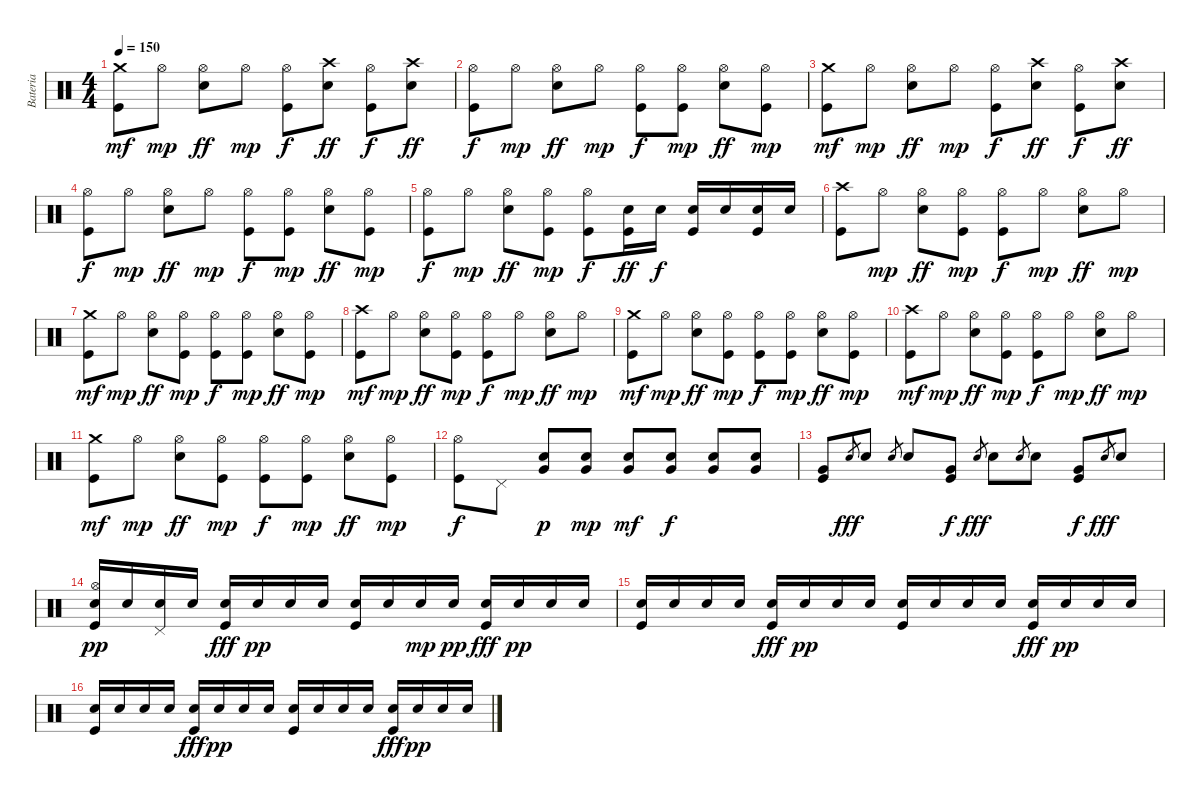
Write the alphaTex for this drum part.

\track ("Bateria" "Bateria") {instrument percussion}
\staff {score}
\articulation defaults
\ts (4 4)
\tempo 150
\clef neutral
\ks c
("Crash medium (hit)" "Kick (hit)").8{dy mf} "Hi-Hat (open)".8{dy mp} ("Hi-Hat (open)" "Electric Snare (hit)").8{dy ff} "Hi-Hat (open)".8{dy mp} ("Hi-Hat (open)" "Kick (hit)").8{dy f} ("Crash high (hit)" "Electric Snare (hit)").8{dy ff} ("Hi-Hat (open)" "Kick (hit)").8{dy f} ("Crash high (hit)" "Electric Snare (hit)").8{dy ff} |
("Hi-Hat (open)" "Kick (hit)").8{dy f} "Hi-Hat (open)".8{dy mp} ("Hi-Hat (open)" "Electric Snare (hit)").8{dy ff} "Hi-Hat (open)".8{dy mp} ("Hi-Hat (open)" "Kick (hit)").8{dy f} ("Hi-Hat (open)" "Kick (hit)").8{dy mp} ("Hi-Hat (open)" "Electric Snare (hit)").8{dy ff} ("Hi-Hat (open)" "Kick (hit)").8{dy mp} |
("Crash medium (hit)" "Kick (hit)").8{dy mf} "Hi-Hat (open)".8{dy mp} ("Hi-Hat (open)" "Electric Snare (hit)").8{dy ff} "Hi-Hat (open)".8{dy mp} ("Hi-Hat (open)" "Kick (hit)").8{dy f} ("Crash high (hit)" "Electric Snare (hit)").8{dy ff} ("Hi-Hat (open)" "Kick (hit)").8{dy f} ("Crash high (hit)" "Electric Snare (hit)").8{dy ff} |
("Hi-Hat (open)" "Kick (hit)").8{dy f} "Hi-Hat (open)".8{dy mp} ("Hi-Hat (open)" "Electric Snare (hit)").8{dy ff} "Hi-Hat (open)".8{dy mp} ("Hi-Hat (open)" "Kick (hit)").8{dy f} ("Hi-Hat (open)" "Kick (hit)").8{dy mp} ("Hi-Hat (open)" "Electric Snare (hit)").8{dy ff} ("Hi-Hat (open)" "Kick (hit)").8{dy mp} |
("Hi-Hat (open)" "Kick (hit)").8{dy f} "Hi-Hat (open)".8{dy mp} ("Hi-Hat (open)" "Electric Snare (hit)").8{dy ff} ("Hi-Hat (open)" "Kick (hit)").8{dy mp} ("Hi-Hat (open)" "Kick (hit)").8{dy f} ("Electric Snare (hit)" "Kick (hit)").16{dy ff} "Electric Snare (hit)".16{dy f} ("Electric Snare (hit)" "Kick (hit)").16 "Electric Snare (hit)".16 ("Electric Snare (hit)" "Kick (hit)").16 "Electric Snare (hit)".16 |
("Crash high (hit)" "Kick (hit)").8 "Hi-Hat (open)".8{dy mp} ("Hi-Hat (open)" "Electric Snare (hit)").8{dy ff} ("Hi-Hat (open)" "Kick (hit)").8{dy mp} ("Hi-Hat (open)" "Kick (hit)").8{dy f} "Hi-Hat (open)".8{dy mp} ("Hi-Hat (open)" "Electric Snare (hit)").8{dy ff} "Hi-Hat (open)".8{dy mp} |
("Crash medium (hit)" "Kick (hit)").8{dy mf} "Hi-Hat (open)".8{dy mp} ("Hi-Hat (open)" "Electric Snare (hit)").8{dy ff} ("Hi-Hat (open)" "Kick (hit)").8{dy mp} ("Hi-Hat (open)" "Kick (hit)").8{dy f} ("Hi-Hat (open)" "Kick (hit)").8{dy mp} ("Hi-Hat (open)" "Electric Snare (hit)").8{dy ff} ("Hi-Hat (open)" "Kick (hit)").8{dy mp} |
("Crash high (hit)" "Kick (hit)").8{dy mf} "Hi-Hat (open)".8{dy mp} ("Hi-Hat (open)" "Electric Snare (hit)").8{dy ff} ("Hi-Hat (open)" "Kick (hit)").8{dy mp} ("Hi-Hat (open)" "Kick (hit)").8{dy f} "Hi-Hat (open)".8{dy mp} ("Hi-Hat (open)" "Electric Snare (hit)").8{dy ff} "Hi-Hat (open)".8{dy mp} |
("Crash medium (hit)" "Kick (hit)").8{dy mf} "Hi-Hat (open)".8{dy mp} ("Hi-Hat (open)" "Electric Snare (hit)").8{dy ff} ("Hi-Hat (open)" "Kick (hit)").8{dy mp} ("Hi-Hat (open)" "Kick (hit)").8{dy f} ("Hi-Hat (open)" "Kick (hit)").8{dy mp} ("Hi-Hat (open)" "Electric Snare (hit)").8{dy ff} ("Hi-Hat (open)" "Kick (hit)").8{dy mp} |
("Crash high (hit)" "Kick (hit)").8{dy mf} "Hi-Hat (open)".8{dy mp} ("Hi-Hat (open)" "Electric Snare (hit)").8{dy ff} ("Hi-Hat (open)" "Kick (hit)").8{dy mp} ("Hi-Hat (open)" "Kick (hit)").8{dy f} "Hi-Hat (open)".8{dy mp} ("Hi-Hat (open)" "Electric Snare (hit)").8{dy ff} "Hi-Hat (open)".8{dy mp} |
("Crash medium (hit)" "Kick (hit)").8{dy mf} "Hi-Hat (open)".8{dy mp} ("Hi-Hat (open)" "Electric Snare (hit)").8{dy ff} ("Hi-Hat (open)" "Kick (hit)").8{dy mp} ("Hi-Hat (open)" "Kick (hit)").8{dy f} ("Hi-Hat (open)" "Kick (hit)").8{dy mp} ("Hi-Hat (open)" "Electric Snare (hit)").8{dy ff} ("Hi-Hat (open)" "Kick (hit)").8{dy mp} |
("Hi-Hat (open)" "Kick (hit)").8{dy f} "Pedal Hi-Hat (hit)".8 ("Electric Snare (hit)" "Very Low Tom (hit)").8{dy p} ("Electric Snare (hit)" "Very Low Tom (hit)").8{dy mp} ("Electric Snare (hit)" "Very Low Tom (hit)").8{dy mf} ("Electric Snare (hit)" "Very Low Tom (hit)").8{dy f} ("Electric Snare (hit)" "Very Low Tom (hit)").8 ("Electric Snare (hit)" "Very Low Tom (hit)").8 |
("Very Low Tom (hit)" "Kick (hit)").8 "Electric Snare (hit)".8{gr dy fff} "Electric Snare (hit)".8 "Electric Snare (hit)".8{gr} "Electric Snare (hit)".8 ("Very Low Tom (hit)" "Kick (hit)").8{dy f} "Electric Snare (hit)".8{gr dy fff} "Electric Snare (hit)".8 "Electric Snare (hit)".8{gr} "Electric Snare (hit)".8 ("Very Low Tom (hit)" "Kick (hit)").8{dy f} "Electric Snare (hit)".8{gr dy fff} "Electric Snare (hit)".8 |
("Hi-Hat (open)" "Electric Snare (hit)" "Kick (hit)").16{dy pp} "Electric Snare (hit)".16 ("Pedal Hi-Hat (hit)" "Electric Snare (hit)").16 "Electric Snare (hit)".16 ("Electric Snare (hit)" "Kick (hit)").16{dy fff} "Electric Snare (hit)".16{dy pp} "Electric Snare (hit)".16 "Electric Snare (hit)".16 ("Electric Snare (hit)" "Kick (hit)").16 "Electric Snare (hit)".16 "Electric Snare (hit)".16{dy mp} "Electric Snare (hit)".16{dy pp} ("Electric Snare (hit)" "Kick (hit)").16{dy fff} "Electric Snare (hit)".16{dy pp} "Electric Snare (hit)".16 "Electric Snare (hit)".16 |
("Electric Snare (hit)" "Kick (hit)").16 "Electric Snare (hit)".16 "Electric Snare (hit)".16 "Electric Snare (hit)".16 ("Electric Snare (hit)" "Kick (hit)").16{dy fff} "Electric Snare (hit)".16{dy pp} "Electric Snare (hit)".16 "Electric Snare (hit)".16 ("Electric Snare (hit)" "Kick (hit)").16 "Electric Snare (hit)".16 "Electric Snare (hit)".16 "Electric Snare (hit)".16 ("Electric Snare (hit)" "Kick (hit)").16{dy fff} "Electric Snare (hit)".16{dy pp} "Electric Snare (hit)".16 "Electric Snare (hit)".16 |
("Electric Snare (hit)" "Kick (hit)").16 "Electric Snare (hit)".16 "Electric Snare (hit)".16 "Electric Snare (hit)".16 ("Electric Snare (hit)" "Kick (hit)").16{dy fff} "Electric Snare (hit)".16{dy pp} "Electric Snare (hit)".16 "Electric Snare (hit)".16 ("Electric Snare (hit)" "Kick (hit)").16 "Electric Snare (hit)".16 "Electric Snare (hit)".16 "Electric Snare (hit)".16 ("Electric Snare (hit)" "Kick (hit)").16{dy fff} "Electric Snare (hit)".16{dy pp} "Electric Snare (hit)".16 "Electric Snare (hit)".16
